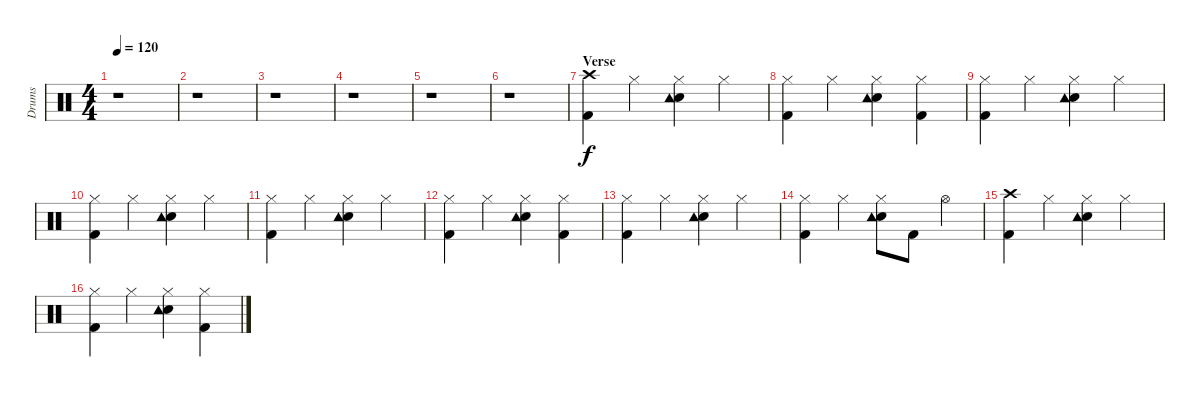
\track ("Drums" "Drums") {instrument percussion}
\staff {score}
\articulation defaults
\ts (4 4)
\tempo 120
\clef neutral
\ks c
r.1{dy f} |
r.1 |
r.1 |
r.1 |
r.1 |
r.1 |
\section ("" "Verse")
("Crash high (hit)" "Kick (hit) 2").4 "Hi-Hat (closed)".4 ("Hi-Hat (closed)" "Electric Snare (hit)" "Tambourine (hit)").4 "Hi-Hat (closed)".4 |
("Hi-Hat (closed)" "Kick (hit) 2").4 "Hi-Hat (closed)".4 ("Hi-Hat (closed)" "Electric Snare (hit)" "Tambourine (hit)").4 ("Hi-Hat (closed)" "Kick (hit) 2").4 |
("Hi-Hat (closed)" "Kick (hit) 2").4 "Hi-Hat (closed)".4 ("Hi-Hat (closed)" "Electric Snare (hit)" "Tambourine (hit)").4 "Hi-Hat (closed)".4 |
("Hi-Hat (closed)" "Kick (hit) 2").4 "Hi-Hat (closed)".4 ("Hi-Hat (closed)" "Electric Snare (hit)" "Tambourine (hit)").4 "Hi-Hat (closed)".4 |
("Hi-Hat (closed)" "Kick (hit) 2").4 "Hi-Hat (closed)".4 ("Hi-Hat (closed)" "Electric Snare (hit)" "Tambourine (hit)").4 "Hi-Hat (closed)".4 |
("Hi-Hat (closed)" "Kick (hit) 2").4 "Hi-Hat (closed)".4 ("Hi-Hat (closed)" "Electric Snare (hit)" "Tambourine (hit)").4 ("Hi-Hat (closed)" "Kick (hit) 2").4 |
("Hi-Hat (closed)" "Kick (hit) 2").4 "Hi-Hat (closed)".4 ("Hi-Hat (closed)" "Electric Snare (hit)" "Tambourine (hit)").4 "Hi-Hat (closed)".4 |
("Hi-Hat (closed)" "Kick (hit) 2").4 "Hi-Hat (closed)".4 ("Hi-Hat (closed)" "Electric Snare (hit)" "Tambourine (hit)").8 "Kick (hit) 2".8 "Hi-Hat (open)".4 |
("Crash high (hit)" "Kick (hit) 2").4 "Hi-Hat (closed)".4 ("Hi-Hat (closed)" "Electric Snare (hit)" "Tambourine (hit)").4 "Hi-Hat (closed)".4 |
("Hi-Hat (closed)" "Kick (hit) 2").4 "Hi-Hat (closed)".4 ("Hi-Hat (closed)" "Electric Snare (hit)" "Tambourine (hit)").4 ("Hi-Hat (closed)" "Kick (hit) 2").4
